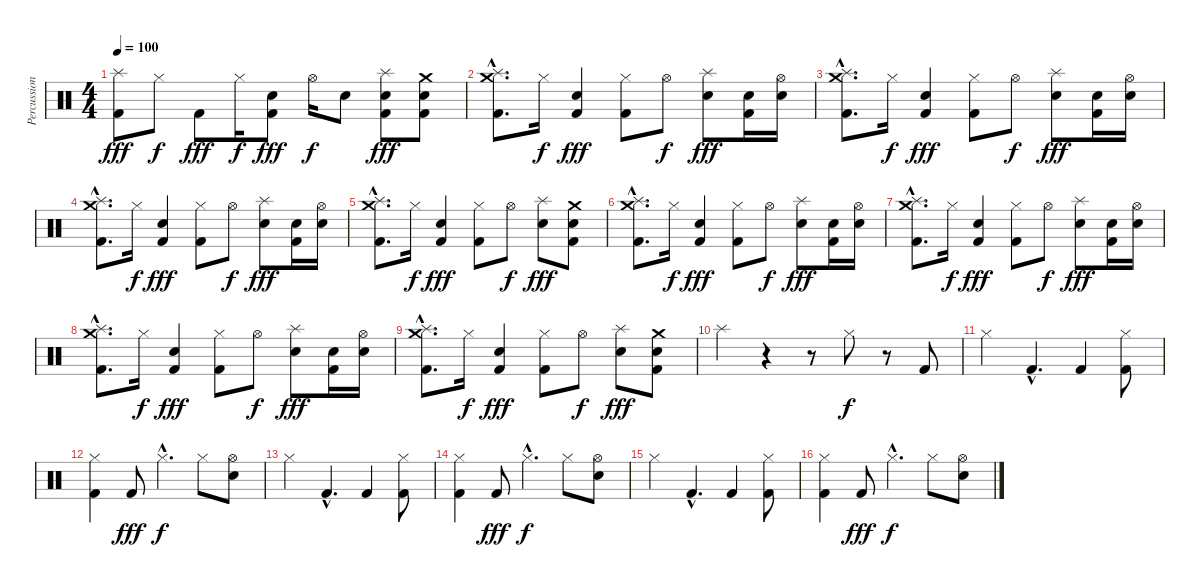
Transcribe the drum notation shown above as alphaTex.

\track ("Percussion" "Percussion") {instrument percussion}
\staff {score}
\articulation defaults
\ts (4 4)
\tempo 100
\clef neutral
\ks c
("Splash (hit)" "Kick (hit) 2").8{dy fff} "Hi-Hat (closed)".8{dy f} "Kick (hit) 2".8{dy fff} "Hi-Hat (closed)".16{dy f} ("Electric Snare (hit)" "Kick (hit) 2").8{dy fff} "Hi-Hat (open)".16{dy f} "Electric Snare (hit)".8 ("Splash (hit)" "Electric Snare (hit)" "Kick (hit) 2").8{dy fff} ("Crash medium (hit)" "Electric Snare (hit)" "Kick (hit) 2").8 |
("Splash (hit)"{hac} "Crash medium (hit)"{hac} "Kick (hit) 2"{hac}).8{d} "Hi-Hat (closed)".16{dy f} ("Electric Snare (hit)" "Kick (hit) 2").4{dy fff} ("Hi-Hat (closed)" "Kick (hit) 2").8 "Hi-Hat (open)".8{dy f} ("Splash (hit)" "Electric Snare (hit)").8{dy fff} ("Electric Snare (hit)" "Kick (hit) 2").16 ("Hi-Hat (open)" "Electric Snare (hit)").16 |
("Splash (hit)"{hac} "Crash medium (hit)"{hac} "Kick (hit) 2"{hac}).8{d} "Hi-Hat (closed)".16{dy f} ("Electric Snare (hit)" "Kick (hit) 2").4{dy fff} ("Hi-Hat (closed)" "Kick (hit) 2").8 "Hi-Hat (open)".8{dy f} ("Splash (hit)" "Electric Snare (hit)").8{dy fff} ("Electric Snare (hit)" "Kick (hit) 2").16 ("Hi-Hat (open)" "Electric Snare (hit)").16 |
("Splash (hit)"{hac} "Crash medium (hit)"{hac} "Kick (hit) 2"{hac}).8{d} "Hi-Hat (closed)".16{dy f} ("Electric Snare (hit)" "Kick (hit) 2").4{dy fff} ("Hi-Hat (closed)" "Kick (hit) 2").8 "Hi-Hat (open)".8{dy f} ("Splash (hit)" "Electric Snare (hit)").8{dy fff} ("Electric Snare (hit)" "Kick (hit) 2").16 ("Hi-Hat (open)" "Electric Snare (hit)").16 |
("Splash (hit)"{hac} "Crash medium (hit)"{hac} "Kick (hit) 2"{hac}).8{d} "Hi-Hat (closed)".16{dy f} ("Electric Snare (hit)" "Kick (hit) 2").4{dy fff} ("Hi-Hat (closed)" "Kick (hit) 2").8 "Hi-Hat (open)".8{dy f} ("Splash (hit)" "Electric Snare (hit)").8{dy fff} ("Crash medium (hit)" "Electric Snare (hit)" "Kick (hit) 2").8 |
("Splash (hit)"{hac} "Crash medium (hit)"{hac} "Kick (hit) 2"{hac}).8{d} "Hi-Hat (closed)".16{dy f} ("Electric Snare (hit)" "Kick (hit) 2").4{dy fff} ("Hi-Hat (closed)" "Kick (hit) 2").8 "Hi-Hat (open)".8{dy f} ("Splash (hit)" "Electric Snare (hit)").8{dy fff} ("Electric Snare (hit)" "Kick (hit) 2").16 ("Hi-Hat (open)" "Electric Snare (hit)").16 |
("Splash (hit)"{hac} "Crash medium (hit)"{hac} "Kick (hit) 2"{hac}).8{d} "Hi-Hat (closed)".16{dy f} ("Electric Snare (hit)" "Kick (hit) 2").4{dy fff} ("Hi-Hat (closed)" "Kick (hit) 2").8 "Hi-Hat (open)".8{dy f} ("Splash (hit)" "Electric Snare (hit)").8{dy fff} ("Electric Snare (hit)" "Kick (hit) 2").16 ("Hi-Hat (open)" "Electric Snare (hit)").16 |
("Splash (hit)"{hac} "Crash medium (hit)"{hac} "Kick (hit) 2"{hac}).8{d} "Hi-Hat (closed)".16{dy f} ("Electric Snare (hit)" "Kick (hit) 2").4{dy fff} ("Hi-Hat (closed)" "Kick (hit) 2").8 "Hi-Hat (open)".8{dy f} ("Splash (hit)" "Electric Snare (hit)").8{dy fff} ("Electric Snare (hit)" "Kick (hit) 2").16 ("Hi-Hat (open)" "Electric Snare (hit)").16 |
("Splash (hit)"{hac} "Crash medium (hit)"{hac} "Kick (hit) 2"{hac}).8{d} "Hi-Hat (closed)".16{dy f} ("Electric Snare (hit)" "Kick (hit) 2").4{dy fff} ("Hi-Hat (closed)" "Kick (hit) 2").8 "Hi-Hat (open)".8{dy f} ("Splash (hit)" "Electric Snare (hit)").8{dy fff} ("Crash medium (hit)" "Electric Snare (hit)" "Kick (hit) 2").8 |
"Splash (hit)".4 r.4 r.8 "Hi-Hat (closed)".8{dy f} r.8 "Kick (hit) 2".8 |
"Hi-Hat (closed)".4 "Kick (hit) 2"{hac}.4{d} "Kick (hit) 2".4 ("Hi-Hat (closed)" "Kick (hit) 2").8 |
("Hi-Hat (closed)" "Kick (hit) 2").4 "Kick (hit) 2".8{dy fff} "Hi-Hat (closed)"{hac}.4{d dy f} "Hi-Hat (closed)".8 ("Hi-Hat (open)" "Electric Snare (hit)").8 |
"Hi-Hat (closed)".4 "Kick (hit) 2"{hac}.4{d} "Kick (hit) 2".4 ("Hi-Hat (closed)" "Kick (hit) 2").8 |
("Hi-Hat (closed)" "Kick (hit) 2").4 "Kick (hit) 2".8{dy fff} "Hi-Hat (closed)"{hac}.4{d dy f} "Hi-Hat (closed)".8 ("Hi-Hat (open)" "Electric Snare (hit)").8 |
"Hi-Hat (closed)".4 "Kick (hit) 2"{hac}.4{d} "Kick (hit) 2".4 ("Hi-Hat (closed)" "Kick (hit) 2").8 |
("Hi-Hat (closed)" "Kick (hit) 2").4 "Kick (hit) 2".8{dy fff} "Hi-Hat (closed)"{hac}.4{d dy f} "Hi-Hat (closed)".8 ("Hi-Hat (open)" "Electric Snare (hit)").8
